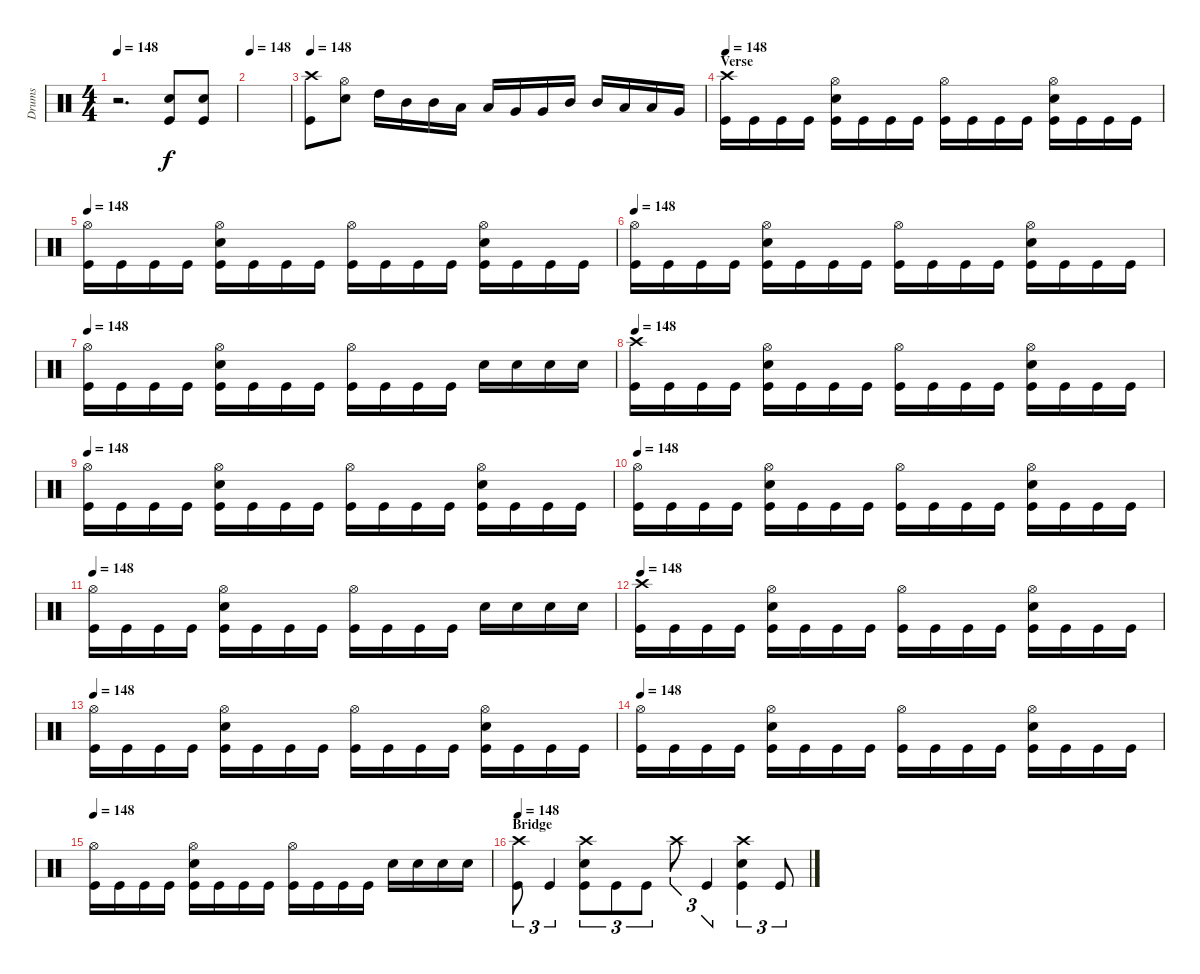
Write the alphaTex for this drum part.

\track ("Drums" "Drums") {instrument percussion}
\staff {score}
\articulation defaults
\ts (4 4)
\tempo 148
\clef neutral
\ks c
r.2{d dy f} ("Electric Snare (hit)" "Kick (hit)").8 ("Electric Snare (hit)" "Kick (hit)").8 |
\tempo 148
|
\tempo 148
("Crash high (hit)" "Kick (hit)").8 ("Hi-Hat (open)" "Electric Snare (hit)").8 "High Tom (hit)".16 "Mid Tom (hit)".16 "Mid Tom (hit)".16 "Low Tom (hit)".16 "Low Tom (hit)".16 "Very Low Tom (hit)".16 "Very Low Tom (hit)".16 "Mid Tom (hit)".16 "Mid Tom (hit)".16 "Low Tom (hit)".16 "Low Tom (hit)".16 "Very Low Tom (hit)".16 |
\section ("" "Verse")
\tempo 148
("Crash high (hit)" "Kick (hit)").16 "Kick (hit)".16 "Kick (hit)".16 "Kick (hit)".16 ("Hi-Hat (open)" "Electric Snare (hit)" "Kick (hit)").16 "Kick (hit)".16 "Kick (hit)".16 "Kick (hit)".16 ("Hi-Hat (open)" "Kick (hit)").16 "Kick (hit)".16 "Kick (hit)".16 "Kick (hit)".16 ("Hi-Hat (open)" "Electric Snare (hit)" "Kick (hit)").16 "Kick (hit)".16 "Kick (hit)".16 "Kick (hit)".16 |
\tempo 148
("Hi-Hat (open)" "Kick (hit)").16 "Kick (hit)".16 "Kick (hit)".16 "Kick (hit)".16 ("Hi-Hat (open)" "Electric Snare (hit)" "Kick (hit)").16 "Kick (hit)".16 "Kick (hit)".16 "Kick (hit)".16 ("Hi-Hat (open)" "Kick (hit)").16 "Kick (hit)".16 "Kick (hit)".16 "Kick (hit)".16 ("Hi-Hat (open)" "Electric Snare (hit)" "Kick (hit)").16 "Kick (hit)".16 "Kick (hit)".16 "Kick (hit)".16 |
\tempo 148
("Hi-Hat (open)" "Kick (hit)").16 "Kick (hit)".16 "Kick (hit)".16 "Kick (hit)".16 ("Hi-Hat (open)" "Electric Snare (hit)" "Kick (hit)").16 "Kick (hit)".16 "Kick (hit)".16 "Kick (hit)".16 ("Hi-Hat (open)" "Kick (hit)").16 "Kick (hit)".16 "Kick (hit)".16 "Kick (hit)".16 ("Hi-Hat (open)" "Electric Snare (hit)" "Kick (hit)").16 "Kick (hit)".16 "Kick (hit)".16 "Kick (hit)".16 |
\tempo 148
("Hi-Hat (open)" "Kick (hit)").16 "Kick (hit)".16 "Kick (hit)".16 "Kick (hit)".16 ("Hi-Hat (open)" "Electric Snare (hit)" "Kick (hit)").16 "Kick (hit)".16 "Kick (hit)".16 "Kick (hit)".16 ("Hi-Hat (open)" "Kick (hit)").16 "Kick (hit)".16 "Kick (hit)".16 "Kick (hit)".16 "Electric Snare (hit)".16 "Electric Snare (hit)".16 "Electric Snare (hit)".16 "Electric Snare (hit)".16 |
\tempo 148
("Crash high (hit)" "Kick (hit)").16 "Kick (hit)".16 "Kick (hit)".16 "Kick (hit)".16 ("Hi-Hat (open)" "Electric Snare (hit)" "Kick (hit)").16 "Kick (hit)".16 "Kick (hit)".16 "Kick (hit)".16 ("Hi-Hat (open)" "Kick (hit)").16 "Kick (hit)".16 "Kick (hit)".16 "Kick (hit)".16 ("Hi-Hat (open)" "Electric Snare (hit)" "Kick (hit)").16 "Kick (hit)".16 "Kick (hit)".16 "Kick (hit)".16 |
\tempo 148
("Hi-Hat (open)" "Kick (hit)").16 "Kick (hit)".16 "Kick (hit)".16 "Kick (hit)".16 ("Hi-Hat (open)" "Electric Snare (hit)" "Kick (hit)").16 "Kick (hit)".16 "Kick (hit)".16 "Kick (hit)".16 ("Hi-Hat (open)" "Kick (hit)").16 "Kick (hit)".16 "Kick (hit)".16 "Kick (hit)".16 ("Hi-Hat (open)" "Electric Snare (hit)" "Kick (hit)").16 "Kick (hit)".16 "Kick (hit)".16 "Kick (hit)".16 |
\tempo 148
("Hi-Hat (open)" "Kick (hit)").16 "Kick (hit)".16 "Kick (hit)".16 "Kick (hit)".16 ("Hi-Hat (open)" "Electric Snare (hit)" "Kick (hit)").16 "Kick (hit)".16 "Kick (hit)".16 "Kick (hit)".16 ("Hi-Hat (open)" "Kick (hit)").16 "Kick (hit)".16 "Kick (hit)".16 "Kick (hit)".16 ("Hi-Hat (open)" "Electric Snare (hit)" "Kick (hit)").16 "Kick (hit)".16 "Kick (hit)".16 "Kick (hit)".16 |
\tempo 148
("Hi-Hat (open)" "Kick (hit)").16 "Kick (hit)".16 "Kick (hit)".16 "Kick (hit)".16 ("Hi-Hat (open)" "Electric Snare (hit)" "Kick (hit)").16 "Kick (hit)".16 "Kick (hit)".16 "Kick (hit)".16 ("Hi-Hat (open)" "Kick (hit)").16 "Kick (hit)".16 "Kick (hit)".16 "Kick (hit)".16 "Electric Snare (hit)".16 "Electric Snare (hit)".16 "Electric Snare (hit)".16 "Electric Snare (hit)".16 |
\tempo 148
("Crash high (hit)" "Kick (hit)").16 "Kick (hit)".16 "Kick (hit)".16 "Kick (hit)".16 ("Hi-Hat (open)" "Electric Snare (hit)" "Kick (hit)").16 "Kick (hit)".16 "Kick (hit)".16 "Kick (hit)".16 ("Hi-Hat (open)" "Kick (hit)").16 "Kick (hit)".16 "Kick (hit)".16 "Kick (hit)".16 ("Hi-Hat (open)" "Electric Snare (hit)" "Kick (hit)").16 "Kick (hit)".16 "Kick (hit)".16 "Kick (hit)".16 |
\tempo 148
("Hi-Hat (open)" "Kick (hit)").16 "Kick (hit)".16 "Kick (hit)".16 "Kick (hit)".16 ("Hi-Hat (open)" "Electric Snare (hit)" "Kick (hit)").16 "Kick (hit)".16 "Kick (hit)".16 "Kick (hit)".16 ("Hi-Hat (open)" "Kick (hit)").16 "Kick (hit)".16 "Kick (hit)".16 "Kick (hit)".16 ("Hi-Hat (open)" "Electric Snare (hit)" "Kick (hit)").16 "Kick (hit)".16 "Kick (hit)".16 "Kick (hit)".16 |
\tempo 148
("Hi-Hat (open)" "Kick (hit)").16 "Kick (hit)".16 "Kick (hit)".16 "Kick (hit)".16 ("Hi-Hat (open)" "Electric Snare (hit)" "Kick (hit)").16 "Kick (hit)".16 "Kick (hit)".16 "Kick (hit)".16 ("Hi-Hat (open)" "Kick (hit)").16 "Kick (hit)".16 "Kick (hit)".16 "Kick (hit)".16 ("Hi-Hat (open)" "Electric Snare (hit)" "Kick (hit)").16 "Kick (hit)".16 "Kick (hit)".16 "Kick (hit)".16 |
\tempo 148
("Hi-Hat (open)" "Kick (hit)").16 "Kick (hit)".16 "Kick (hit)".16 "Kick (hit)".16 ("Hi-Hat (open)" "Electric Snare (hit)" "Kick (hit)").16 "Kick (hit)".16 "Kick (hit)".16 "Kick (hit)".16 ("Hi-Hat (open)" "Kick (hit)").16 "Kick (hit)".16 "Kick (hit)".16 "Kick (hit)".16 "Electric Snare (hit)".16 "Electric Snare (hit)".16 "Electric Snare (hit)".16 "Electric Snare (hit)".16 |
\section ("" "Bridge")
\tempo 148
("Crash high (hit)" "Kick (hit)").8{tu (3 2)} "Kick (hit)".4{tu (3 2)} ("Crash high (hit)" "Electric Snare (hit)" "Kick (hit)").8{tu (3 2)} "Kick (hit)".8{tu (3 2)} "Kick (hit)".8{tu (3 2)} "Crash high (hit)".8{tu (3 2)} "Kick (hit)".4{tu (3 2)} ("Crash high (hit)" "Electric Snare (hit)" "Kick (hit)").4{tu (3 2)} "Kick (hit)".8{tu (3 2)}
